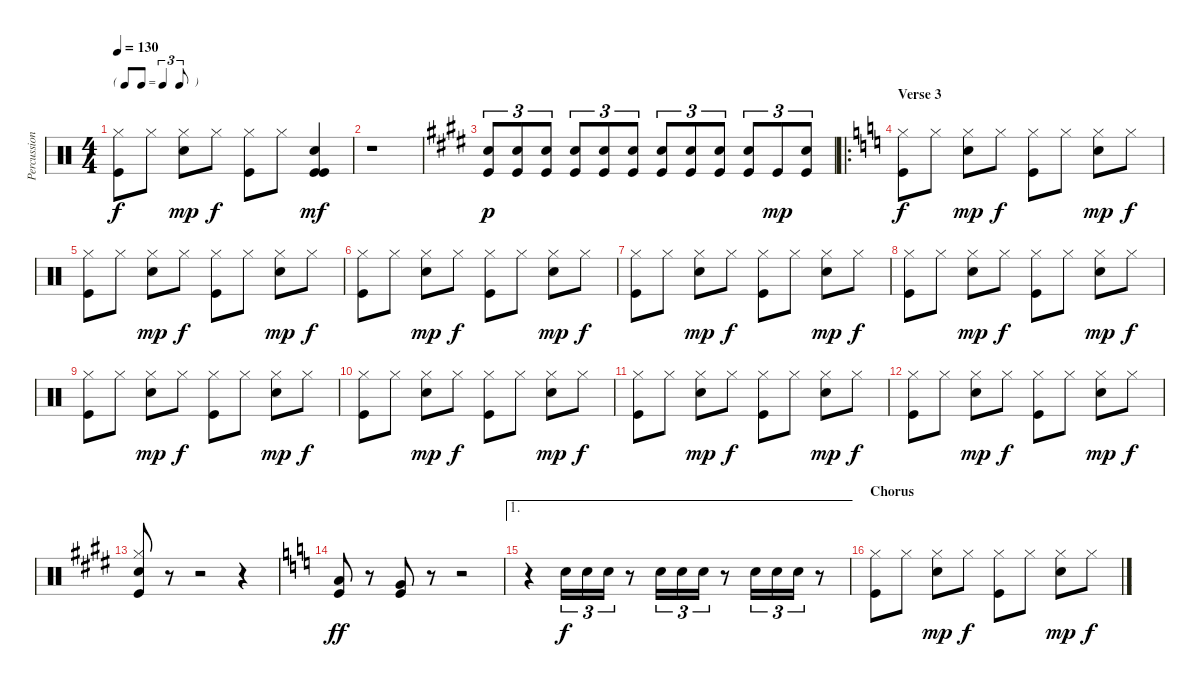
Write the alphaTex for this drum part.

\track ("Percussion" "Percussion") {instrument percussion}
\staff {score}
\articulation defaults
\ts (4 4)
\tf triplet8th
\tempo 130
\clef neutral
\ks c
("Kick (hit)" "Hi-Hat (closed)").8{dy f} "Hi-Hat (closed)".8 ("Electric Snare (hit)" "Hi-Hat (closed)").8{dy mp} "Hi-Hat (closed)".8{dy f} ("Kick (hit)" "Hi-Hat (closed)").8 "Hi-Hat (closed)".8 ("Kick (hit)" "Electric Snare (hit)" "Kick (hit)").4{dy mf} |
r.1 |
\ks e
("Kick (hit)" "Snare (hit) 2").8{tu (3 2) dy p} ("Kick (hit)" "Snare (hit) 2").8{tu (3 2)} ("Kick (hit)" "Snare (hit) 2").8{tu (3 2)} ("Kick (hit)" "Snare (hit) 2").8{tu (3 2)} ("Kick (hit)" "Snare (hit) 2").8{tu (3 2)} ("Kick (hit)" "Snare (hit) 2").8{tu (3 2)} ("Kick (hit)" "Snare (hit) 2").8{tu (3 2)} ("Kick (hit)" "Snare (hit) 2").8{tu (3 2)} ("Kick (hit)" "Snare (hit) 2").8{tu (3 2)} ("Kick (hit)" "Snare (hit) 2").8{tu (3 2)} "Kick (hit)".8{tu (3 2) dy mp} ("Kick (hit)" "Snare (hit) 2").8{tu (3 2)} |
\ro
\section ("" "Verse 3")
\ks c
("Kick (hit)" "Hi-Hat (closed)").8{dy f} "Hi-Hat (closed)".8 ("Electric Snare (hit)" "Hi-Hat (closed)").8{dy mp} "Hi-Hat (closed)".8{dy f} ("Kick (hit)" "Hi-Hat (closed)").8 "Hi-Hat (closed)".8 ("Electric Snare (hit)" "Hi-Hat (closed)").8{dy mp} "Hi-Hat (closed)".8{dy f} |
("Kick (hit)" "Hi-Hat (closed)").8 "Hi-Hat (closed)".8 ("Electric Snare (hit)" "Hi-Hat (closed)").8{dy mp} "Hi-Hat (closed)".8{dy f} ("Kick (hit)" "Hi-Hat (closed)").8 "Hi-Hat (closed)".8 ("Electric Snare (hit)" "Hi-Hat (closed)").8{dy mp} "Hi-Hat (closed)".8{dy f} |
("Kick (hit)" "Hi-Hat (closed)").8 "Hi-Hat (closed)".8 ("Electric Snare (hit)" "Hi-Hat (closed)").8{dy mp} "Hi-Hat (closed)".8{dy f} ("Kick (hit)" "Hi-Hat (closed)").8 "Hi-Hat (closed)".8 ("Electric Snare (hit)" "Hi-Hat (closed)").8{dy mp} "Hi-Hat (closed)".8{dy f} |
("Kick (hit)" "Hi-Hat (closed)").8 "Hi-Hat (closed)".8 ("Electric Snare (hit)" "Hi-Hat (closed)").8{dy mp} "Hi-Hat (closed)".8{dy f} ("Kick (hit)" "Hi-Hat (closed)").8 "Hi-Hat (closed)".8 ("Electric Snare (hit)" "Hi-Hat (closed)").8{dy mp} "Hi-Hat (closed)".8{dy f} |
("Kick (hit)" "Hi-Hat (closed)").8 "Hi-Hat (closed)".8 ("Electric Snare (hit)" "Hi-Hat (closed)").8{dy mp} "Hi-Hat (closed)".8{dy f} ("Kick (hit)" "Hi-Hat (closed)").8 "Hi-Hat (closed)".8 ("Electric Snare (hit)" "Hi-Hat (closed)").8{dy mp} "Hi-Hat (closed)".8{dy f} |
("Kick (hit)" "Hi-Hat (closed)").8 "Hi-Hat (closed)".8 ("Electric Snare (hit)" "Hi-Hat (closed)").8{dy mp} "Hi-Hat (closed)".8{dy f} ("Kick (hit)" "Hi-Hat (closed)").8 "Hi-Hat (closed)".8 ("Electric Snare (hit)" "Hi-Hat (closed)").8{dy mp} "Hi-Hat (closed)".8{dy f} |
("Kick (hit)" "Hi-Hat (closed)").8 "Hi-Hat (closed)".8 ("Electric Snare (hit)" "Hi-Hat (closed)").8{dy mp} "Hi-Hat (closed)".8{dy f} ("Kick (hit)" "Hi-Hat (closed)").8 "Hi-Hat (closed)".8 ("Electric Snare (hit)" "Hi-Hat (closed)").8{dy mp} "Hi-Hat (closed)".8{dy f} |
("Kick (hit)" "Hi-Hat (closed)").8 "Hi-Hat (closed)".8 ("Electric Snare (hit)" "Hi-Hat (closed)").8{dy mp} "Hi-Hat (closed)".8{dy f} ("Kick (hit)" "Hi-Hat (closed)").8 "Hi-Hat (closed)".8 ("Electric Snare (hit)" "Hi-Hat (closed)").8{dy mp} "Hi-Hat (closed)".8{dy f} |
("Kick (hit)" "Hi-Hat (closed)").8 "Hi-Hat (closed)".8 ("Electric Snare (hit)" "Hi-Hat (closed)").8{dy mp} "Hi-Hat (closed)".8{dy f} ("Kick (hit)" "Hi-Hat (closed)").8 "Hi-Hat (closed)".8 ("Electric Snare (hit)" "Hi-Hat (closed)").8{dy mp} "Hi-Hat (closed)".8{dy f} |
\ks e
("Kick (hit)" "Electric Snare (hit)" "Hi-Hat (closed)").8 r.8 r.2 r.4 |
\ks c
("Kick (hit)" "Low Tom (hit)").8{dy ff} r.8 ("Kick (hit)" "Very Low Tom (hit)").8 r.8 r.2 |
\ae 1
r.4 "Snare (hit) 2".16{tu (3 2) dy f} "Snare (hit) 2".16{tu (3 2)} "Snare (hit) 2".16{tu (3 2)} r.8 "Snare (hit) 2".16{tu (3 2)} "Snare (hit) 2".16{tu (3 2)} "Snare (hit) 2".16{tu (3 2)} r.8 "Snare (hit) 2".16{tu (3 2)} "Snare (hit) 2".16{tu (3 2)} "Snare (hit) 2".16{tu (3 2)} r.8 |
\section ("" "Chorus")
("Kick (hit)" "Hi-Hat (closed)").8 "Hi-Hat (closed)".8 ("Electric Snare (hit)" "Hi-Hat (closed)").8{dy mp} "Hi-Hat (closed)".8{dy f} ("Kick (hit)" "Hi-Hat (closed)").8 "Hi-Hat (closed)".8 ("Electric Snare (hit)" "Hi-Hat (closed)").8{dy mp} "Hi-Hat (closed)".8{dy f}
